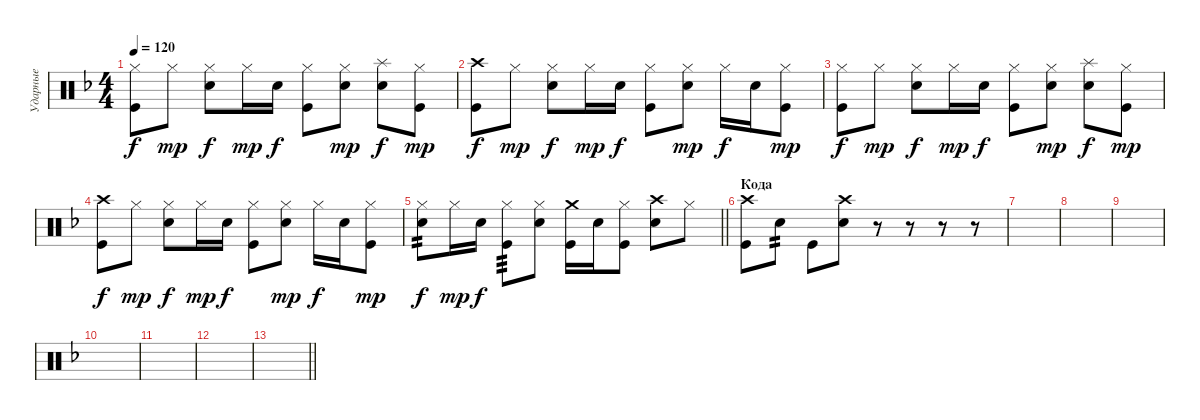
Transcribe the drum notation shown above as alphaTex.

\track ("Ударные" "Ударные") {instrument percussion}
\staff {score}
\articulation defaults
\ts (4 4)
\tempo 120
\clef neutral
\ks dminor
("Hi-Hat (closed)" "Kick (hit)").8{dy f} "Hi-Hat (closed)".8{dy mp} ("Hi-Hat (closed)" "Snare (hit) 2").8{dy f} "Hi-Hat (closed)".16{dy mp} "Snare (hit) 2".16{dy f} ("Hi-Hat (closed)" "Kick (hit)").8 ("Hi-Hat (closed)" "Snare (hit) 2").8{dy mp} ("Splash (hit)" "Snare (hit) 2").8{dy f} ("Hi-Hat (closed)" "Kick (hit)").8{dy mp} |
("Crash high (hit)" "Kick (hit)").8{dy f} "Hi-Hat (closed)".8{dy mp} ("Hi-Hat (closed)" "Snare (hit) 2").8{dy f} "Hi-Hat (closed)".16{dy mp} "Snare (hit) 2".16{dy f} ("Hi-Hat (closed)" "Kick (hit)").8 ("Hi-Hat (closed)" "Snare (hit) 2").8{dy mp} "Hi-Hat (closed)".16{dy f} "Snare (hit) 2".16 ("Hi-Hat (closed)" "Kick (hit)").8{dy mp} |
("Hi-Hat (closed)" "Kick (hit)").8{dy f} "Hi-Hat (closed)".8{dy mp} ("Hi-Hat (closed)" "Snare (hit) 2").8{dy f} "Hi-Hat (closed)".16{dy mp} "Snare (hit) 2".16{dy f} ("Hi-Hat (closed)" "Kick (hit)").8 ("Hi-Hat (closed)" "Snare (hit) 2").8{dy mp} ("Splash (hit)" "Snare (hit) 2").8{dy f} ("Hi-Hat (closed)" "Kick (hit)").8{dy mp} |
("Crash high (hit)" "Kick (hit)").8{dy f} "Hi-Hat (closed)".8{dy mp} ("Hi-Hat (closed)" "Snare (hit) 2").8{dy f} "Hi-Hat (closed)".16{dy mp} "Snare (hit) 2".16{dy f} ("Hi-Hat (closed)" "Kick (hit)").8 ("Hi-Hat (closed)" "Snare (hit) 2").8{dy mp} "Hi-Hat (closed)".16{dy f} "Snare (hit) 2".16 ("Hi-Hat (closed)" "Kick (hit)").8{dy mp} |
\barLineRight lightlight
("Hi-Hat (closed)" "Snare (hit) 2").8{tp 2 dy f} "Hi-Hat (closed)".16{dy mp} "Snare (hit) 2".16{dy f} ("Hi-Hat (closed)" "Kick (hit)").8{tp 3} ("Hi-Hat (closed)" "Snare (hit) 2").8 ("Crash medium (hit)" "Kick (hit)").16 "Snare (hit) 2".16 ("Hi-Hat (closed)" "Kick (hit)").8 ("Crash high (hit)" "Snare (hit) 2").8 "Hi-Hat (closed)".8 |
\section ("" "Кода")
("Crash high (hit)" "Kick (hit)").8 "Snare (hit) 2".8{tp 2} "Kick (hit)".8 ("Crash high (hit)" "Snare (hit) 2").8 r.8 r.8 r.8 r.8 |
|
|
|
|
|
|
\barLineRight lightlight
